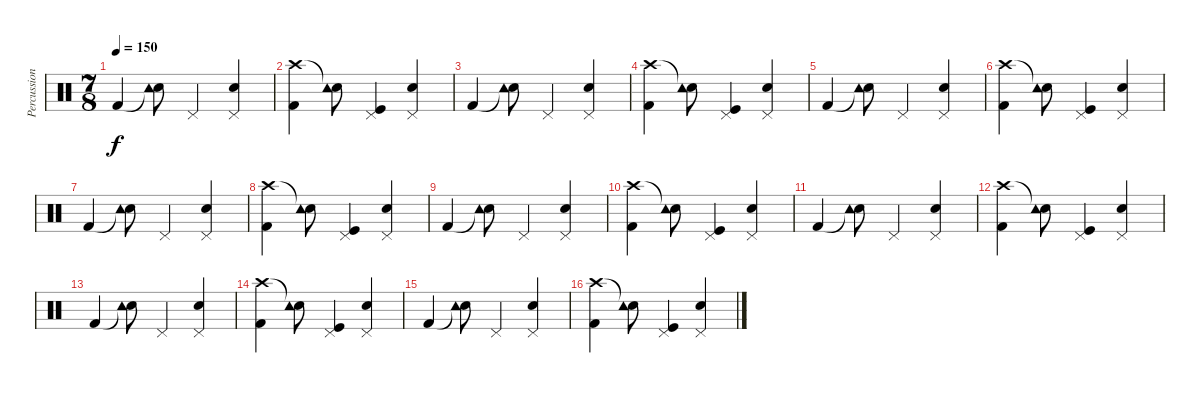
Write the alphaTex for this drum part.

\track ("Percussion" "Percussion") {instrument percussion}
\staff {score}
\articulation defaults
\ts (7 8)
\tempo 150
\clef neutral
\ks c "Kick (hit) 2".4{dy f}
("Snare (hit)"{t} "Tambourine (hit)").8 "Pedal Hi-Hat (hit)".4 ("Pedal Hi-Hat (hit)" "Snare (hit) 2").4 |
("Crash high (hit)" "Kick (hit) 2").4 ("Snare (hit)"{t} "Tambourine (hit)").8 ("Pedal Hi-Hat (hit)" "Kick (hit)").4 ("Pedal Hi-Hat (hit)" "Snare (hit) 2").4 |
"Kick (hit) 2".4 ("Snare (hit)"{t} "Tambourine (hit)").8 "Pedal Hi-Hat (hit)".4 ("Pedal Hi-Hat (hit)" "Snare (hit) 2").4 |
("Crash high (hit)" "Kick (hit) 2").4 ("Snare (hit)"{t} "Tambourine (hit)").8 ("Pedal Hi-Hat (hit)" "Kick (hit)").4 ("Pedal Hi-Hat (hit)" "Snare (hit) 2").4 |
"Kick (hit) 2".4 ("Snare (hit)"{t} "Tambourine (hit)").8 "Pedal Hi-Hat (hit)".4 ("Pedal Hi-Hat (hit)" "Snare (hit) 2").4 |
("Crash high (hit)" "Kick (hit) 2").4 ("Snare (hit)"{t} "Tambourine (hit)").8 ("Pedal Hi-Hat (hit)" "Kick (hit)").4 ("Pedal Hi-Hat (hit)" "Snare (hit) 2").4 |
"Kick (hit) 2".4 ("Snare (hit)"{t} "Tambourine (hit)").8 "Pedal Hi-Hat (hit)".4 ("Pedal Hi-Hat (hit)" "Snare (hit) 2").4 |
("Crash high (hit)" "Kick (hit) 2").4 ("Snare (hit)"{t} "Tambourine (hit)").8 ("Pedal Hi-Hat (hit)" "Kick (hit)").4 ("Pedal Hi-Hat (hit)" "Snare (hit) 2").4 |
"Kick (hit) 2".4 ("Snare (hit)"{t} "Tambourine (hit)").8 "Pedal Hi-Hat (hit)".4 ("Pedal Hi-Hat (hit)" "Snare (hit) 2").4 |
("Crash high (hit)" "Kick (hit) 2").4 ("Snare (hit)"{t} "Tambourine (hit)").8 ("Pedal Hi-Hat (hit)" "Kick (hit)").4 ("Pedal Hi-Hat (hit)" "Snare (hit) 2").4 |
"Kick (hit) 2".4 ("Snare (hit)"{t} "Tambourine (hit)").8 "Pedal Hi-Hat (hit)".4 ("Pedal Hi-Hat (hit)" "Snare (hit) 2").4 |
("Crash high (hit)" "Kick (hit) 2").4 ("Snare (hit)"{t} "Tambourine (hit)").8 ("Pedal Hi-Hat (hit)" "Kick (hit)").4 ("Pedal Hi-Hat (hit)" "Snare (hit) 2").4 |
"Kick (hit) 2".4 ("Snare (hit)"{t} "Tambourine (hit)").8 "Pedal Hi-Hat (hit)".4 ("Pedal Hi-Hat (hit)" "Snare (hit) 2").4 |
("Crash high (hit)" "Kick (hit) 2").4 ("Snare (hit)"{t} "Tambourine (hit)").8 ("Pedal Hi-Hat (hit)" "Kick (hit)").4 ("Pedal Hi-Hat (hit)" "Snare (hit) 2").4 |
"Kick (hit) 2".4 ("Snare (hit)"{t} "Tambourine (hit)").8 "Pedal Hi-Hat (hit)".4 ("Pedal Hi-Hat (hit)" "Snare (hit) 2").4 |
("Crash high (hit)" "Kick (hit) 2").4 ("Snare (hit)"{t} "Tambourine (hit)").8 ("Pedal Hi-Hat (hit)" "Kick (hit)").4 ("Pedal Hi-Hat (hit)" "Snare (hit) 2").4
